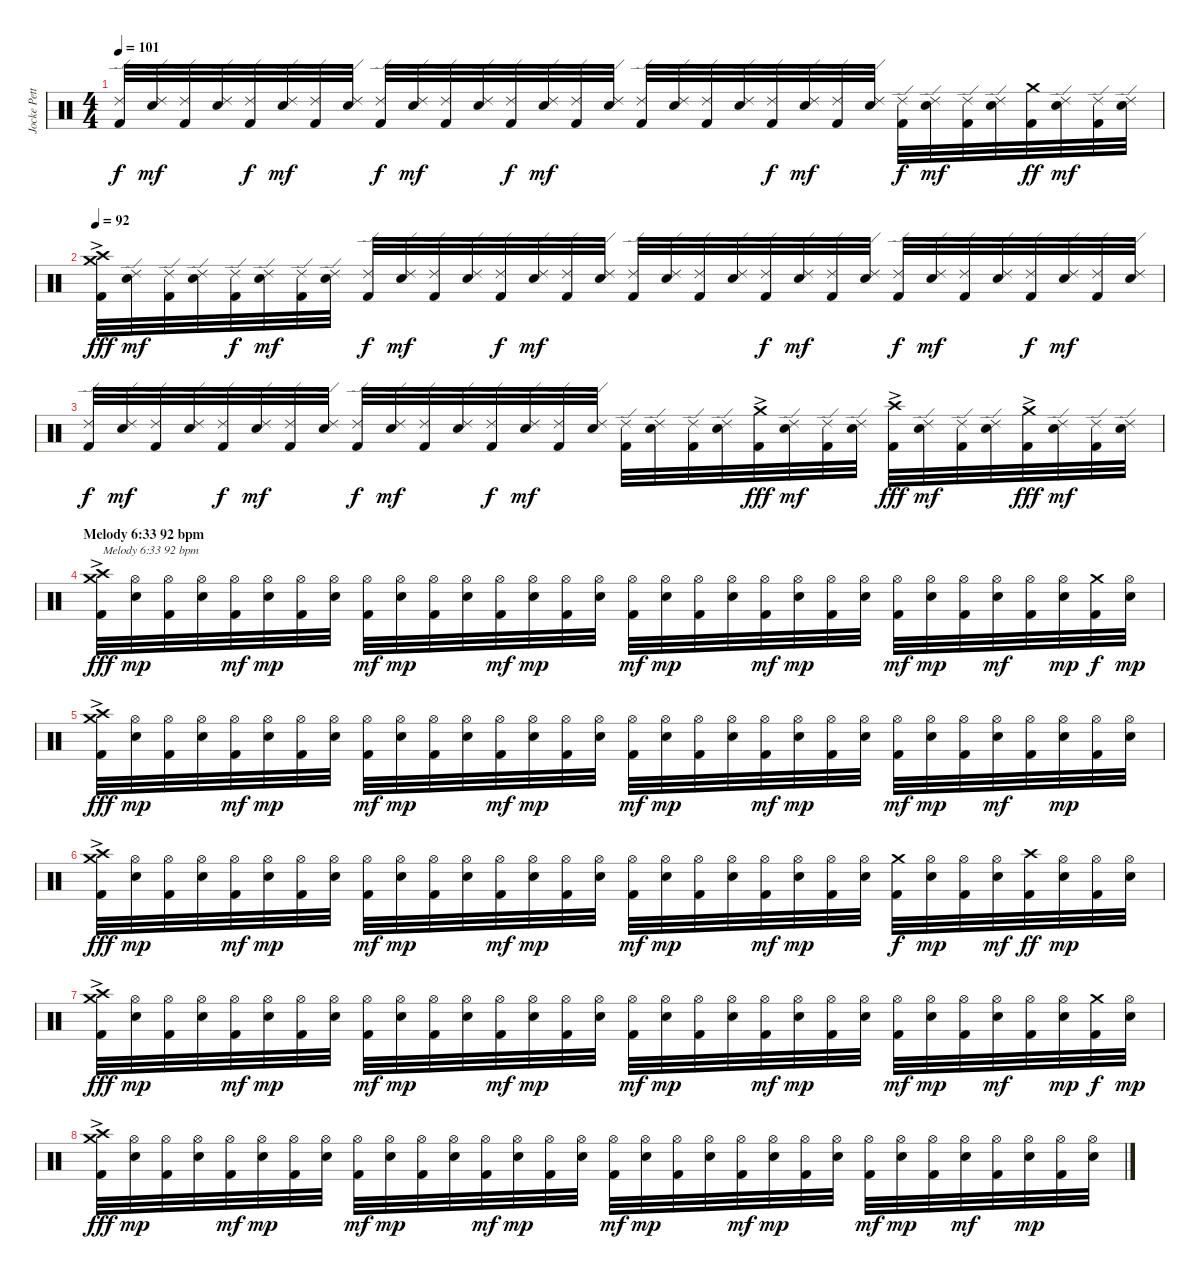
\track ("Jocke Pettersson" "Jocke Pett") {instrument percussion}
\staff {score}
\articulation defaults
\ts (4 4)
\tempo 101
\clef neutral
\ks c
("Kick (hit) 2" "Ride (edge) 2").32{dy f} ("Electric Snare (hit)" "Ride (edge) 2").32{dy mf} ("Kick (hit) 2" "Ride (edge) 2").32 ("Electric Snare (hit)" "Ride (edge) 2").32 ("Kick (hit) 2" "Ride (edge) 2").32{dy f} ("Electric Snare (hit)" "Ride (edge) 2").32{dy mf} ("Kick (hit) 2" "Ride (edge) 2").32 ("Electric Snare (hit)" "Ride (edge) 2").32 ("Kick (hit) 2" "Ride (edge) 2").32{dy f} ("Electric Snare (hit)" "Ride (edge) 2").32{dy mf} ("Kick (hit) 2" "Ride (edge) 2").32 ("Electric Snare (hit)" "Ride (edge) 2").32 ("Kick (hit) 2" "Ride (edge) 2").32{dy f} ("Electric Snare (hit)" "Ride (edge) 2").32{dy mf} ("Kick (hit) 2" "Ride (edge) 2").32 ("Electric Snare (hit)" "Ride (edge) 2").32 ("Kick (hit) 2" "Ride (edge) 2").32 ("Electric Snare (hit)" "Ride (edge) 2").32 ("Kick (hit) 2" "Ride (edge) 2").32 ("Electric Snare (hit)" "Ride (edge) 2").32 ("Kick (hit) 2" "Ride (edge) 2").32{dy f} ("Electric Snare (hit)" "Ride (edge) 2").32{dy mf} ("Kick (hit) 2" "Ride (edge) 2").32 ("Electric Snare (hit)" "Ride (edge) 2").32 ("Kick (hit) 2" "Ride (edge) 2").32{dy f} ("Electric Snare (hit)" "Ride (edge) 2").32{dy mf} ("Kick (hit) 2" "Ride (edge) 2").32 ("Electric Snare (hit)" "Ride (edge) 2").32 ("Kick (hit) 2" "Crash medium (hit)").32{dy ff} ("Electric Snare (hit)" "Ride (edge) 2").32{dy mf} ("Kick (hit) 2" "Ride (edge) 2").32 ("Electric Snare (hit)" "Ride (edge) 2").32 |
\tempo 92
("Kick (hit) 2" "Crash medium (hit)"{ac} "Crash high (hit)").32{dy fff} ("Electric Snare (hit)" "Ride (edge) 2").32{dy mf} ("Kick (hit) 2" "Ride (edge) 2").32 ("Electric Snare (hit)" "Ride (edge) 2").32 ("Kick (hit) 2" "Ride (edge) 2").32{dy f} ("Electric Snare (hit)" "Ride (edge) 2").32{dy mf} ("Kick (hit) 2" "Ride (edge) 2").32 ("Electric Snare (hit)" "Ride (edge) 2").32 ("Kick (hit) 2" "Ride (edge) 2").32{dy f} ("Electric Snare (hit)" "Ride (edge) 2").32{dy mf} ("Kick (hit) 2" "Ride (edge) 2").32 ("Electric Snare (hit)" "Ride (edge) 2").32 ("Kick (hit) 2" "Ride (edge) 2").32{dy f} ("Electric Snare (hit)" "Ride (edge) 2").32{dy mf} ("Kick (hit) 2" "Ride (edge) 2").32 ("Electric Snare (hit)" "Ride (edge) 2").32 ("Kick (hit) 2" "Ride (edge) 2").32 ("Electric Snare (hit)" "Ride (edge) 2").32 ("Kick (hit) 2" "Ride (edge) 2").32 ("Electric Snare (hit)" "Ride (edge) 2").32 ("Kick (hit) 2" "Ride (edge) 2").32{dy f} ("Electric Snare (hit)" "Ride (edge) 2").32{dy mf} ("Kick (hit) 2" "Ride (edge) 2").32 ("Electric Snare (hit)" "Ride (edge) 2").32 ("Kick (hit) 2" "Ride (edge) 2").32{dy f} ("Electric Snare (hit)" "Ride (edge) 2").32{dy mf} ("Kick (hit) 2" "Ride (edge) 2").32 ("Electric Snare (hit)" "Ride (edge) 2").32 ("Kick (hit) 2" "Ride (edge) 2").32{dy f} ("Electric Snare (hit)" "Ride (edge) 2").32{dy mf} ("Kick (hit) 2" "Ride (edge) 2").32 ("Electric Snare (hit)" "Ride (edge) 2").32 |
("Kick (hit) 2" "Ride (edge) 2").32{dy f} ("Electric Snare (hit)" "Ride (edge) 2").32{dy mf} ("Kick (hit) 2" "Ride (edge) 2").32 ("Electric Snare (hit)" "Ride (edge) 2").32 ("Kick (hit) 2" "Ride (edge) 2").32{dy f} ("Electric Snare (hit)" "Ride (edge) 2").32{dy mf} ("Kick (hit) 2" "Ride (edge) 2").32 ("Electric Snare (hit)" "Ride (edge) 2").32 ("Kick (hit) 2" "Ride (edge) 2").32{dy f} ("Electric Snare (hit)" "Ride (edge) 2").32{dy mf} ("Kick (hit) 2" "Ride (edge) 2").32 ("Electric Snare (hit)" "Ride (edge) 2").32 ("Kick (hit) 2" "Ride (edge) 2").32{dy f} ("Electric Snare (hit)" "Ride (edge) 2").32{dy mf} ("Kick (hit) 2" "Ride (edge) 2").32 ("Electric Snare (hit)" "Ride (edge) 2").32 ("Kick (hit) 2" "Ride (edge) 2").32 ("Electric Snare (hit)" "Ride (edge) 2").32 ("Kick (hit) 2" "Ride (edge) 2").32 ("Electric Snare (hit)" "Ride (edge) 2").32 ("Kick (hit) 2" "Crash medium (hit)"{ac}).32{dy fff} ("Electric Snare (hit)" "Ride (edge) 2").32{dy mf} ("Kick (hit) 2" "Ride (edge) 2").32 ("Electric Snare (hit)" "Ride (edge) 2").32 ("Kick (hit) 2" "Crash high (hit)"{ac}).32{dy fff} ("Electric Snare (hit)" "Ride (edge) 2").32{dy mf} ("Kick (hit) 2" "Ride (edge) 2").32 ("Electric Snare (hit)" "Ride (edge) 2").32 ("Kick (hit) 2" "Crash medium (hit)"{ac}).32{dy fff} ("Electric Snare (hit)" "Ride (edge) 2").32{dy mf} ("Kick (hit) 2" "Ride (edge) 2").32 ("Electric Snare (hit)" "Ride (edge) 2").32 |
\section ("" "Melody 6:33 92 bpm")
("Kick (hit) 2" "Crash high (hit)"{ac} "Crash medium (hit)"{ac}).32{txt "Melody 6:33 92 bpm" dy fff} ("Electric Snare (hit)" "Hi-Hat (open)").32{dy mp} ("Kick (hit) 2" "Hi-Hat (open)").32 ("Electric Snare (hit)" "Hi-Hat (open)").32 ("Kick (hit) 2" "Hi-Hat (open)").32{dy mf} ("Electric Snare (hit)" "Hi-Hat (open)").32{dy mp} ("Kick (hit) 2" "Hi-Hat (open)").32 ("Electric Snare (hit)" "Hi-Hat (open)").32 ("Kick (hit) 2" "Hi-Hat (open)").32{dy mf} ("Electric Snare (hit)" "Hi-Hat (open)").32{dy mp} ("Kick (hit) 2" "Hi-Hat (open)").32 ("Electric Snare (hit)" "Hi-Hat (open)").32 ("Kick (hit) 2" "Hi-Hat (open)").32{dy mf} ("Electric Snare (hit)" "Hi-Hat (open)").32{dy mp} ("Kick (hit) 2" "Hi-Hat (open)").32 ("Electric Snare (hit)" "Hi-Hat (open)").32 ("Kick (hit) 2" "Hi-Hat (open)").32{dy mf} ("Electric Snare (hit)" "Hi-Hat (open)").32{dy mp} ("Kick (hit) 2" "Hi-Hat (open)").32 ("Electric Snare (hit)" "Hi-Hat (open)").32 ("Kick (hit) 2" "Hi-Hat (open)").32{dy mf} ("Electric Snare (hit)" "Hi-Hat (open)").32{dy mp} ("Kick (hit) 2" "Hi-Hat (open)").32 ("Electric Snare (hit)" "Hi-Hat (open)").32 ("Kick (hit) 2" "Hi-Hat (open)").32{dy mf} ("Electric Snare (hit)" "Hi-Hat (open)").32{dy mp} ("Kick (hit) 2" "Hi-Hat (open)").32 ("Electric Snare (hit)" "Hi-Hat (open)").32{dy mf} ("Kick (hit) 2" "Hi-Hat (open)").32 ("Electric Snare (hit)" "Hi-Hat (open)").32{dy mp} ("Kick (hit) 2" "Crash medium (hit)").32{dy f} ("Electric Snare (hit)" "Hi-Hat (open)").32{dy mp} |
("Kick (hit) 2" "Crash high (hit)"{ac} "Crash medium (hit)"{ac}).32{dy fff} ("Electric Snare (hit)" "Hi-Hat (open)").32{dy mp} ("Kick (hit) 2" "Hi-Hat (open)").32 ("Electric Snare (hit)" "Hi-Hat (open)").32 ("Kick (hit) 2" "Hi-Hat (open)").32{dy mf} ("Electric Snare (hit)" "Hi-Hat (open)").32{dy mp} ("Kick (hit) 2" "Hi-Hat (open)").32 ("Electric Snare (hit)" "Hi-Hat (open)").32 ("Kick (hit) 2" "Hi-Hat (open)").32{dy mf} ("Electric Snare (hit)" "Hi-Hat (open)").32{dy mp} ("Kick (hit) 2" "Hi-Hat (open)").32 ("Electric Snare (hit)" "Hi-Hat (open)").32 ("Kick (hit) 2" "Hi-Hat (open)").32{dy mf} ("Electric Snare (hit)" "Hi-Hat (open)").32{dy mp} ("Kick (hit) 2" "Hi-Hat (open)").32 ("Electric Snare (hit)" "Hi-Hat (open)").32 ("Kick (hit) 2" "Hi-Hat (open)").32{dy mf} ("Electric Snare (hit)" "Hi-Hat (open)").32{dy mp} ("Kick (hit) 2" "Hi-Hat (open)").32 ("Electric Snare (hit)" "Hi-Hat (open)").32 ("Kick (hit) 2" "Hi-Hat (open)").32{dy mf} ("Electric Snare (hit)" "Hi-Hat (open)").32{dy mp} ("Kick (hit) 2" "Hi-Hat (open)").32 ("Electric Snare (hit)" "Hi-Hat (open)").32 ("Kick (hit) 2" "Hi-Hat (open)").32{dy mf} ("Electric Snare (hit)" "Hi-Hat (open)").32{dy mp} ("Kick (hit) 2" "Hi-Hat (open)").32 ("Electric Snare (hit)" "Hi-Hat (open)").32{dy mf} ("Kick (hit) 2" "Hi-Hat (open)").32 ("Electric Snare (hit)" "Hi-Hat (open)").32{dy mp} ("Kick (hit) 2" "Hi-Hat (open)").32 ("Electric Snare (hit)" "Hi-Hat (open)").32 |
("Kick (hit) 2" "Crash high (hit)"{ac} "Crash medium (hit)"{ac}).32{dy fff} ("Electric Snare (hit)" "Hi-Hat (open)").32{dy mp} ("Kick (hit) 2" "Hi-Hat (open)").32 ("Electric Snare (hit)" "Hi-Hat (open)").32 ("Kick (hit) 2" "Hi-Hat (open)").32{dy mf} ("Electric Snare (hit)" "Hi-Hat (open)").32{dy mp} ("Kick (hit) 2" "Hi-Hat (open)").32 ("Electric Snare (hit)" "Hi-Hat (open)").32 ("Kick (hit) 2" "Hi-Hat (open)").32{dy mf} ("Electric Snare (hit)" "Hi-Hat (open)").32{dy mp} ("Kick (hit) 2" "Hi-Hat (open)").32 ("Electric Snare (hit)" "Hi-Hat (open)").32 ("Kick (hit) 2" "Hi-Hat (open)").32{dy mf} ("Electric Snare (hit)" "Hi-Hat (open)").32{dy mp} ("Kick (hit) 2" "Hi-Hat (open)").32 ("Electric Snare (hit)" "Hi-Hat (open)").32 ("Kick (hit) 2" "Hi-Hat (open)").32{dy mf} ("Electric Snare (hit)" "Hi-Hat (open)").32{dy mp} ("Kick (hit) 2" "Hi-Hat (open)").32 ("Electric Snare (hit)" "Hi-Hat (open)").32 ("Kick (hit) 2" "Hi-Hat (open)").32{dy mf} ("Electric Snare (hit)" "Hi-Hat (open)").32{dy mp} ("Kick (hit) 2" "Hi-Hat (open)").32 ("Electric Snare (hit)" "Hi-Hat (open)").32 ("Kick (hit) 2" "Crash medium (hit)").32{dy f} ("Electric Snare (hit)" "Hi-Hat (open)").32{dy mp} ("Kick (hit) 2" "Hi-Hat (open)").32 ("Electric Snare (hit)" "Hi-Hat (open)").32{dy mf} ("Kick (hit) 2" "Crash high (hit)").32{dy ff} ("Electric Snare (hit)" "Hi-Hat (open)").32{dy mp} ("Kick (hit) 2" "Hi-Hat (open)").32 ("Electric Snare (hit)" "Hi-Hat (open)").32 |
("Kick (hit) 2" "Crash high (hit)"{ac} "Crash medium (hit)"{ac}).32{dy fff} ("Electric Snare (hit)" "Hi-Hat (open)").32{dy mp} ("Kick (hit) 2" "Hi-Hat (open)").32 ("Electric Snare (hit)" "Hi-Hat (open)").32 ("Kick (hit) 2" "Hi-Hat (open)").32{dy mf} ("Electric Snare (hit)" "Hi-Hat (open)").32{dy mp} ("Kick (hit) 2" "Hi-Hat (open)").32 ("Electric Snare (hit)" "Hi-Hat (open)").32 ("Kick (hit) 2" "Hi-Hat (open)").32{dy mf} ("Electric Snare (hit)" "Hi-Hat (open)").32{dy mp} ("Kick (hit) 2" "Hi-Hat (open)").32 ("Electric Snare (hit)" "Hi-Hat (open)").32 ("Kick (hit) 2" "Hi-Hat (open)").32{dy mf} ("Electric Snare (hit)" "Hi-Hat (open)").32{dy mp} ("Kick (hit) 2" "Hi-Hat (open)").32 ("Electric Snare (hit)" "Hi-Hat (open)").32 ("Kick (hit) 2" "Hi-Hat (open)").32{dy mf} ("Electric Snare (hit)" "Hi-Hat (open)").32{dy mp} ("Kick (hit) 2" "Hi-Hat (open)").32 ("Electric Snare (hit)" "Hi-Hat (open)").32 ("Kick (hit) 2" "Hi-Hat (open)").32{dy mf} ("Electric Snare (hit)" "Hi-Hat (open)").32{dy mp} ("Kick (hit) 2" "Hi-Hat (open)").32 ("Electric Snare (hit)" "Hi-Hat (open)").32 ("Kick (hit) 2" "Hi-Hat (open)").32{dy mf} ("Electric Snare (hit)" "Hi-Hat (open)").32{dy mp} ("Kick (hit) 2" "Hi-Hat (open)").32 ("Electric Snare (hit)" "Hi-Hat (open)").32{dy mf} ("Kick (hit) 2" "Hi-Hat (open)").32 ("Electric Snare (hit)" "Hi-Hat (open)").32{dy mp} ("Kick (hit) 2" "Crash medium (hit)").32{dy f} ("Electric Snare (hit)" "Hi-Hat (open)").32{dy mp} |
("Kick (hit) 2" "Crash high (hit)"{ac} "Crash medium (hit)"{ac}).32{dy fff} ("Electric Snare (hit)" "Hi-Hat (open)").32{dy mp} ("Kick (hit) 2" "Hi-Hat (open)").32 ("Electric Snare (hit)" "Hi-Hat (open)").32 ("Kick (hit) 2" "Hi-Hat (open)").32{dy mf} ("Electric Snare (hit)" "Hi-Hat (open)").32{dy mp} ("Kick (hit) 2" "Hi-Hat (open)").32 ("Electric Snare (hit)" "Hi-Hat (open)").32 ("Kick (hit) 2" "Hi-Hat (open)").32{dy mf} ("Electric Snare (hit)" "Hi-Hat (open)").32{dy mp} ("Kick (hit) 2" "Hi-Hat (open)").32 ("Electric Snare (hit)" "Hi-Hat (open)").32 ("Kick (hit) 2" "Hi-Hat (open)").32{dy mf} ("Electric Snare (hit)" "Hi-Hat (open)").32{dy mp} ("Kick (hit) 2" "Hi-Hat (open)").32 ("Electric Snare (hit)" "Hi-Hat (open)").32 ("Kick (hit) 2" "Hi-Hat (open)").32{dy mf} ("Electric Snare (hit)" "Hi-Hat (open)").32{dy mp} ("Kick (hit) 2" "Hi-Hat (open)").32 ("Electric Snare (hit)" "Hi-Hat (open)").32 ("Kick (hit) 2" "Hi-Hat (open)").32{dy mf} ("Electric Snare (hit)" "Hi-Hat (open)").32{dy mp} ("Kick (hit) 2" "Hi-Hat (open)").32 ("Electric Snare (hit)" "Hi-Hat (open)").32 ("Kick (hit) 2" "Hi-Hat (open)").32{dy mf} ("Electric Snare (hit)" "Hi-Hat (open)").32{dy mp} ("Kick (hit) 2" "Hi-Hat (open)").32 ("Electric Snare (hit)" "Hi-Hat (open)").32{dy mf} ("Kick (hit) 2" "Hi-Hat (open)").32 ("Electric Snare (hit)" "Hi-Hat (open)").32{dy mp} ("Kick (hit) 2" "Hi-Hat (open)").32 ("Electric Snare (hit)" "Hi-Hat (open)").32
